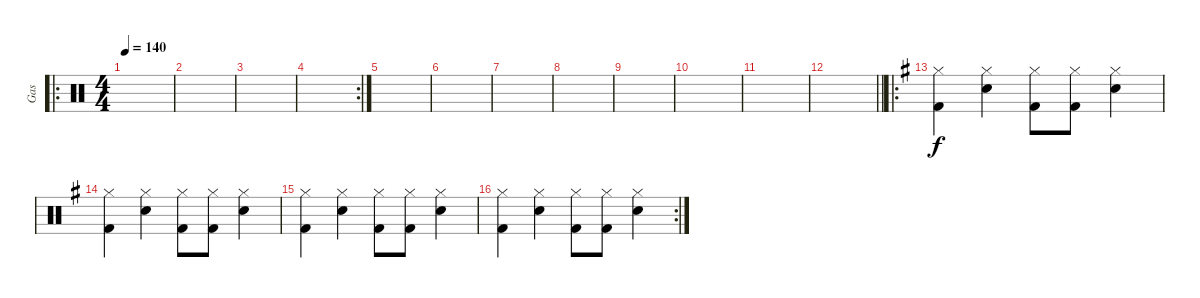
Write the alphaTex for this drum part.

\track ("Gas" "Gas") {instrument percussion}
\staff {score}
\articulation defaults
\ro
\ts (4 4)
\tempo 140
\clef neutral
\ks c
|
|
|
\rc 2
|
|
|
|
|
|
|
|
\barLineRight lightlight
|
\ro
\ks eminor
("Hi-Hat (closed)" "Kick (hit) 2").4 ("Hi-Hat (closed)" "Electric Snare (hit)").4 ("Hi-Hat (closed)" "Kick (hit) 2").8 ("Hi-Hat (closed)" "Kick (hit) 2").8 ("Hi-Hat (closed)" "Electric Snare (hit)").4 |
("Hi-Hat (closed)" "Kick (hit) 2").4 ("Hi-Hat (closed)" "Electric Snare (hit)").4 ("Hi-Hat (closed)" "Kick (hit) 2").8 ("Hi-Hat (closed)" "Kick (hit) 2").8 ("Hi-Hat (closed)" "Electric Snare (hit)").4 |
("Hi-Hat (closed)" "Kick (hit) 2").4 ("Hi-Hat (closed)" "Electric Snare (hit)").4 ("Hi-Hat (closed)" "Kick (hit) 2").8 ("Hi-Hat (closed)" "Kick (hit) 2").8 ("Hi-Hat (closed)" "Electric Snare (hit)").4 |
\rc 2
("Hi-Hat (closed)" "Kick (hit) 2").4 ("Hi-Hat (closed)" "Electric Snare (hit)").4 ("Hi-Hat (closed)" "Kick (hit) 2").8 ("Hi-Hat (closed)" "Kick (hit) 2").8 ("Hi-Hat (closed)" "Electric Snare (hit)").4
